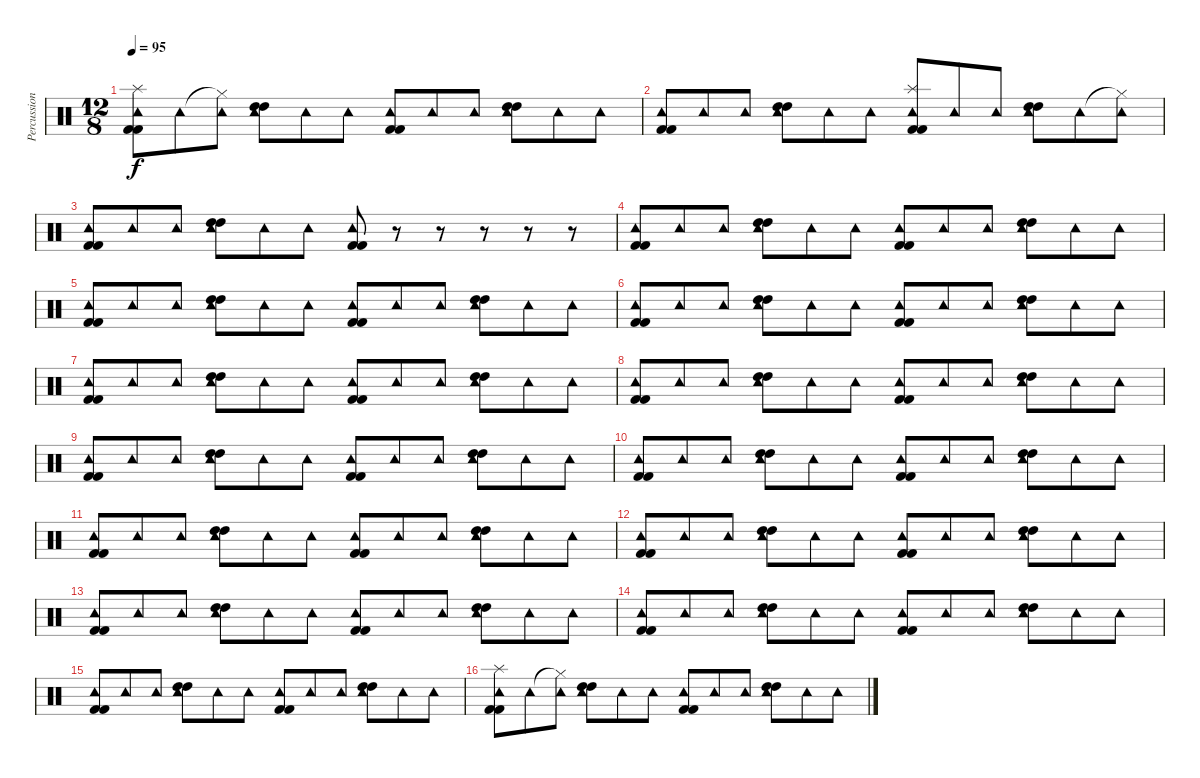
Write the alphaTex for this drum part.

\track ("Percussion" "Percussion") {instrument percussion}
\staff {score}
\articulation defaults
\ts (12 8)
\tempo 95
\clef neutral
\ks c
("Kick (hit) 2" "Kick (hit) 2" "Splash (hit)" "Tambourine (hit)").8{dy f} "Tambourine (hit)".8 ("Hi-Hat (closed)"{t} "Tambourine (hit)").8 ("High Tom (hit)" "High Tom (hit)" "Tambourine (hit)").8 "Tambourine (hit)".8 "Tambourine (hit)".8 ("Kick (hit) 2" "Kick (hit) 2" "Tambourine (hit)").8 "Tambourine (hit)".8 "Tambourine (hit)".8 ("High Tom (hit)" "High Tom (hit)" "Tambourine (hit)").8 "Tambourine (hit)".8 "Tambourine (hit)".8 |
("Kick (hit) 2" "Kick (hit) 2" "Tambourine (hit)").8 "Tambourine (hit)".8 "Tambourine (hit)".8 ("High Tom (hit)" "High Tom (hit)" "Tambourine (hit)").8 "Tambourine (hit)".8 "Tambourine (hit)".8 ("Kick (hit) 2" "Kick (hit) 2" "Splash (hit)" "Tambourine (hit)").8 "Tambourine (hit)".8 "Tambourine (hit)".8 ("High Tom (hit)" "High Tom (hit)" "Tambourine (hit)").8 "Tambourine (hit)".8 ("Hi-Hat (closed)"{t} "Tambourine (hit)").8 |
("Kick (hit) 2" "Kick (hit) 2" "Tambourine (hit)").8 "Tambourine (hit)".8 "Tambourine (hit)".8 ("High Tom (hit)" "High Tom (hit)" "Tambourine (hit)").8 "Tambourine (hit)".8 "Tambourine (hit)".8 ("Kick (hit) 2" "Kick (hit) 2" "Tambourine (hit)").8 r.8 r.8 r.8 r.8 r.8 |
("Kick (hit) 2" "Kick (hit) 2" "Tambourine (hit)").8 "Tambourine (hit)".8 "Tambourine (hit)".8 ("High Tom (hit)" "High Tom (hit)" "Tambourine (hit)").8 "Tambourine (hit)".8 "Tambourine (hit)".8 ("Kick (hit) 2" "Kick (hit) 2" "Tambourine (hit)").8 "Tambourine (hit)".8 "Tambourine (hit)".8 ("High Tom (hit)" "High Tom (hit)" "Tambourine (hit)").8 "Tambourine (hit)".8 "Tambourine (hit)".8 |
("Kick (hit) 2" "Kick (hit) 2" "Tambourine (hit)").8 "Tambourine (hit)".8 "Tambourine (hit)".8 ("High Tom (hit)" "High Tom (hit)" "Tambourine (hit)").8 "Tambourine (hit)".8 "Tambourine (hit)".8 ("Kick (hit) 2" "Kick (hit) 2" "Tambourine (hit)").8 "Tambourine (hit)".8 "Tambourine (hit)".8 ("High Tom (hit)" "High Tom (hit)" "Tambourine (hit)").8 "Tambourine (hit)".8 "Tambourine (hit)".8 |
("Kick (hit) 2" "Kick (hit) 2" "Tambourine (hit)").8 "Tambourine (hit)".8 "Tambourine (hit)".8 ("High Tom (hit)" "High Tom (hit)" "Tambourine (hit)").8 "Tambourine (hit)".8 "Tambourine (hit)".8 ("Kick (hit) 2" "Kick (hit) 2" "Tambourine (hit)").8 "Tambourine (hit)".8 "Tambourine (hit)".8 ("High Tom (hit)" "High Tom (hit)" "Tambourine (hit)").8 "Tambourine (hit)".8 "Tambourine (hit)".8 |
("Kick (hit) 2" "Kick (hit) 2" "Tambourine (hit)").8 "Tambourine (hit)".8 "Tambourine (hit)".8 ("High Tom (hit)" "High Tom (hit)" "Tambourine (hit)").8 "Tambourine (hit)".8 "Tambourine (hit)".8 ("Kick (hit) 2" "Kick (hit) 2" "Tambourine (hit)").8 "Tambourine (hit)".8 "Tambourine (hit)".8 ("High Tom (hit)" "High Tom (hit)" "Tambourine (hit)").8 "Tambourine (hit)".8 "Tambourine (hit)".8 |
("Kick (hit) 2" "Kick (hit) 2" "Tambourine (hit)").8 "Tambourine (hit)".8 "Tambourine (hit)".8 ("High Tom (hit)" "High Tom (hit)" "Tambourine (hit)").8 "Tambourine (hit)".8 "Tambourine (hit)".8 ("Kick (hit) 2" "Kick (hit) 2" "Tambourine (hit)").8 "Tambourine (hit)".8 "Tambourine (hit)".8 ("High Tom (hit)" "High Tom (hit)" "Tambourine (hit)").8 "Tambourine (hit)".8 "Tambourine (hit)".8 |
("Kick (hit) 2" "Kick (hit) 2" "Tambourine (hit)").8 "Tambourine (hit)".8 "Tambourine (hit)".8 ("High Tom (hit)" "High Tom (hit)" "Tambourine (hit)").8 "Tambourine (hit)".8 "Tambourine (hit)".8 ("Kick (hit) 2" "Kick (hit) 2" "Tambourine (hit)").8 "Tambourine (hit)".8 "Tambourine (hit)".8 ("High Tom (hit)" "High Tom (hit)" "Tambourine (hit)").8 "Tambourine (hit)".8 "Tambourine (hit)".8 |
("Kick (hit) 2" "Kick (hit) 2" "Tambourine (hit)").8 "Tambourine (hit)".8 "Tambourine (hit)".8 ("High Tom (hit)" "High Tom (hit)" "Tambourine (hit)").8 "Tambourine (hit)".8 "Tambourine (hit)".8 ("Kick (hit) 2" "Kick (hit) 2" "Tambourine (hit)").8 "Tambourine (hit)".8 "Tambourine (hit)".8 ("High Tom (hit)" "High Tom (hit)" "Tambourine (hit)").8 "Tambourine (hit)".8 "Tambourine (hit)".8 |
("Kick (hit) 2" "Kick (hit) 2" "Tambourine (hit)").8 "Tambourine (hit)".8 "Tambourine (hit)".8 ("High Tom (hit)" "High Tom (hit)" "Tambourine (hit)").8 "Tambourine (hit)".8 "Tambourine (hit)".8 ("Kick (hit) 2" "Kick (hit) 2" "Tambourine (hit)").8 "Tambourine (hit)".8 "Tambourine (hit)".8 ("High Tom (hit)" "High Tom (hit)" "Tambourine (hit)").8 "Tambourine (hit)".8 "Tambourine (hit)".8 |
("Kick (hit) 2" "Kick (hit) 2" "Tambourine (hit)").8 "Tambourine (hit)".8 "Tambourine (hit)".8 ("High Tom (hit)" "High Tom (hit)" "Tambourine (hit)").8 "Tambourine (hit)".8 "Tambourine (hit)".8 ("Kick (hit) 2" "Kick (hit) 2" "Tambourine (hit)").8 "Tambourine (hit)".8 "Tambourine (hit)".8 ("High Tom (hit)" "High Tom (hit)" "Tambourine (hit)").8 "Tambourine (hit)".8 "Tambourine (hit)".8 |
("Kick (hit) 2" "Kick (hit) 2" "Tambourine (hit)").8 "Tambourine (hit)".8 "Tambourine (hit)".8 ("High Tom (hit)" "High Tom (hit)" "Tambourine (hit)").8 "Tambourine (hit)".8 "Tambourine (hit)".8 ("Kick (hit) 2" "Kick (hit) 2" "Tambourine (hit)").8 "Tambourine (hit)".8 "Tambourine (hit)".8 ("High Tom (hit)" "High Tom (hit)" "Tambourine (hit)").8 "Tambourine (hit)".8 "Tambourine (hit)".8 |
("Kick (hit) 2" "Kick (hit) 2" "Tambourine (hit)").8 "Tambourine (hit)".8 "Tambourine (hit)".8 ("High Tom (hit)" "High Tom (hit)" "Tambourine (hit)").8 "Tambourine (hit)".8 "Tambourine (hit)".8 ("Kick (hit) 2" "Kick (hit) 2" "Tambourine (hit)").8 "Tambourine (hit)".8 "Tambourine (hit)".8 ("High Tom (hit)" "High Tom (hit)" "Tambourine (hit)").8 "Tambourine (hit)".8 "Tambourine (hit)".8 |
("Kick (hit) 2" "Kick (hit) 2" "Tambourine (hit)").8 "Tambourine (hit)".8 "Tambourine (hit)".8 ("High Tom (hit)" "High Tom (hit)" "Tambourine (hit)").8 "Tambourine (hit)".8 "Tambourine (hit)".8 ("Kick (hit) 2" "Kick (hit) 2" "Tambourine (hit)").8 "Tambourine (hit)".8 "Tambourine (hit)".8 ("High Tom (hit)" "High Tom (hit)" "Tambourine (hit)").8 "Tambourine (hit)".8 "Tambourine (hit)".8 |
("Kick (hit) 2" "Kick (hit) 2" "Splash (hit)" "Tambourine (hit)").8 "Tambourine (hit)".8 ("Hi-Hat (closed)"{t} "Tambourine (hit)").8 ("High Tom (hit)" "High Tom (hit)" "Tambourine (hit)").8 "Tambourine (hit)".8 "Tambourine (hit)".8 ("Kick (hit) 2" "Kick (hit) 2" "Tambourine (hit)").8 "Tambourine (hit)".8 "Tambourine (hit)".8 ("High Tom (hit)" "High Tom (hit)" "Tambourine (hit)").8 "Tambourine (hit)".8 "Tambourine (hit)".8
